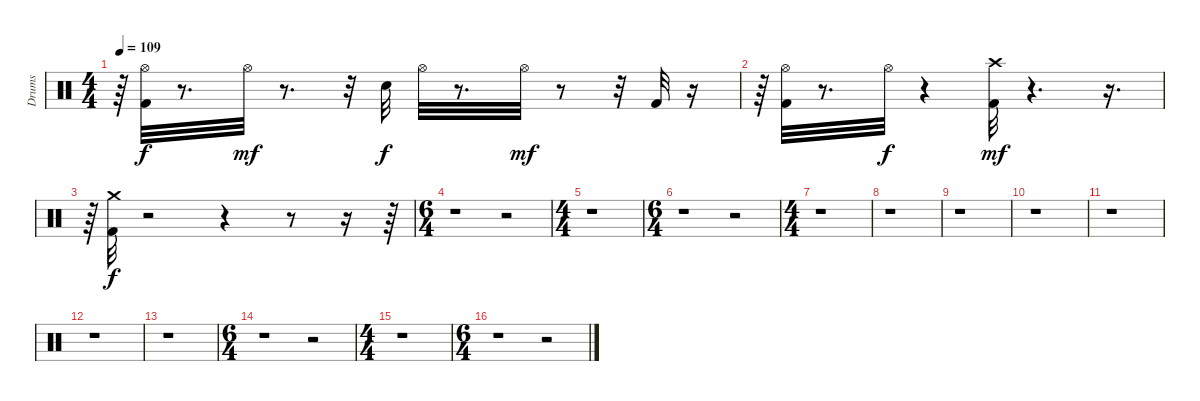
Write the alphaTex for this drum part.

\track ("Drums" "Drums") {solo instrument percussion}
\staff {score}
\articulation defaults
\ts (4 4)
\tempo 109
\clef neutral
\ks c
r.64{dy mp} ("Kick (hit) 2" "Hi-Hat (open)").32{dy f} r.8{d} "Hi-Hat (open)".32{dy mf} r.8{d} r.32 "Electric Snare (hit)".32{dy f} "Hi-Hat (open)".32 r.8{d} "Hi-Hat (open)".32{dy mf} r.8 r.32 "Kick (hit) 2".32 r.16 |
r.64 ("Kick (hit) 2" "Hi-Hat (open)").32 r.8{d} "Hi-Hat (open)".32{dy f} r.4 ("Kick (hit) 2" "Crash high (hit)").32{dy mf} r.4{d} r.16{d} |
r.64 ("Kick (hit) 2" "Crash medium (hit)").32{dy f} r.2 r.4 r.8 r.16 r.64 |
\ts (6 4)
r.1 r.2 |
\ts (4 4)
r.1 |
\ts (6 4)
r.1 r.2 |
\ts (4 4)
r.1 |
r.1 |
r.1 |
r.1 |
r.1 |
r.1 |
r.1 |
\ts (6 4)
r.1 r.2 |
\ts (4 4)
r.1 |
\ts (6 4)
r.1 r.2
